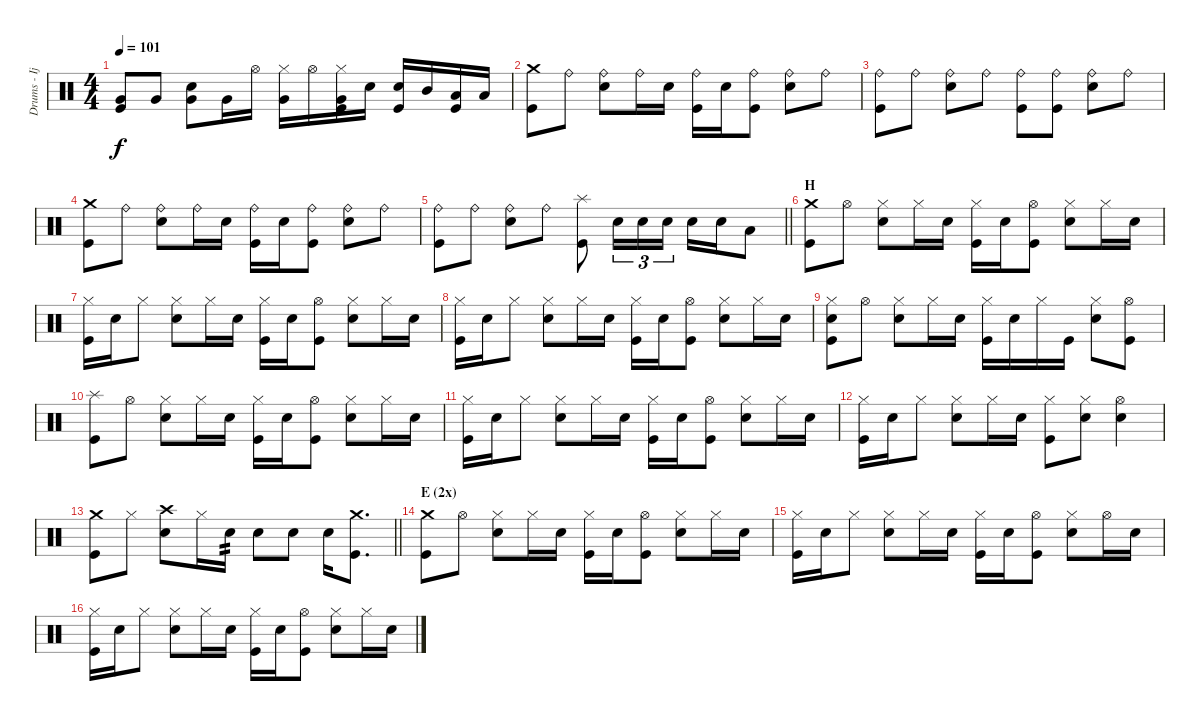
\track ("Drums - Ijichi" "Drums - Ij") {instrument percussion}
\staff {score}
\articulation defaults
\ts (4 4)
\tempo 101
\clef neutral
\ks c
("Very Low Tom (hit)" "Kick (hit)").8{dy f} "Very Low Tom (hit)".8 ("Electric Snare (hit)" "Very Low Tom (hit)").8 "Very Low Tom (hit)".16 "Hi-Hat (open)".16 ("Hi-Hat (closed)" "Very Low Tom (hit)").16 "Hi-Hat (open)".16 ("Hi-Hat (closed)" "Very Low Tom (hit)" "Kick (hit)").16 "Electric Snare (hit)".16 ("Electric Snare (hit)" "Kick (hit)").16 "Mid Tom (hit)".16 ("Low Tom (hit)" "Kick (hit)").16 "Low Tom (hit)".16 |
("Crash medium (hit)" "Kick (hit)").8 "Ride (bell)".8 ("Ride (bell)" "Electric Snare (hit)").8 "Ride (bell)".16 "Electric Snare (hit)".16 ("Ride (bell)" "Kick (hit)").16 "Electric Snare (hit)".16 ("Ride (bell)" "Kick (hit)").8 ("Ride (bell)" "Electric Snare (hit)").8 "Ride (bell)".8 |
("Ride (bell)" "Kick (hit)").8 "Ride (bell)".8 ("Ride (bell)" "Electric Snare (hit)").8 "Ride (bell)".8 ("Ride (bell)" "Kick (hit)").8 ("Ride (bell)" "Kick (hit)").8 ("Ride (bell)" "Electric Snare (hit)").8 "Ride (bell)".8 |
("Crash medium (hit)" "Kick (hit)").8 "Ride (bell)".8 ("Ride (bell)" "Electric Snare (hit)").8 "Ride (bell)".16 "Electric Snare (hit)".16 ("Ride (bell)" "Kick (hit)").16 "Electric Snare (hit)".16 ("Ride (bell)" "Kick (hit)").8 ("Ride (bell)" "Electric Snare (hit)").8 "Ride (bell)".8 |
\barLineRight lightlight
("Ride (bell)" "Kick (hit)").8 "Ride (bell)".8 ("Ride (bell)" "Electric Snare (hit)").8 "Ride (bell)".8 ("Splash (hit)" "Kick (hit)").8 "Electric Snare (hit)".16{tu (3 2)} "Electric Snare (hit)".16{tu (3 2)} "Electric Snare (hit)".16{tu (3 2)} "Electric Snare (hit)".16 "Electric Snare (hit)".16 "Low Tom (hit)".8 |
\section ("" "H")
("Crash medium (hit)" "Kick (hit)").8 "Hi-Hat (open)".8 ("Hi-Hat (closed)" "Electric Snare (hit)").8 "Hi-Hat (closed)".16 "Electric Snare (hit)".16 ("Hi-Hat (closed)" "Kick (hit)").16 "Electric Snare (hit)".16 ("Hi-Hat (open)" "Kick (hit)").8 ("Hi-Hat (closed)" "Electric Snare (hit)").8 "Hi-Hat (closed)".16 "Electric Snare (hit)".16 |
("Hi-Hat (closed)" "Kick (hit)").16 "Electric Snare (hit)".16 "Hi-Hat (closed)".8 ("Hi-Hat (closed)" "Electric Snare (hit)").8 "Hi-Hat (closed)".16 "Electric Snare (hit)".16 ("Hi-Hat (closed)" "Kick (hit)").16 "Electric Snare (hit)".16 ("Hi-Hat (open)" "Kick (hit)").8 ("Hi-Hat (closed)" "Electric Snare (hit)").8 "Hi-Hat (closed)".16 "Electric Snare (hit)".16 |
("Hi-Hat (closed)" "Kick (hit)").16 "Electric Snare (hit)".16 "Hi-Hat (closed)".8 ("Hi-Hat (closed)" "Electric Snare (hit)").8 "Hi-Hat (closed)".16 "Electric Snare (hit)".16 ("Hi-Hat (closed)" "Kick (hit)").16 "Electric Snare (hit)".16 ("Hi-Hat (open)" "Kick (hit)").8 ("Hi-Hat (closed)" "Electric Snare (hit)").8 "Hi-Hat (closed)".16 "Electric Snare (hit)".16 |
("Hi-Hat (closed)" "Electric Snare (hit)" "Kick (hit)").8 "Hi-Hat (open)".8 ("Hi-Hat (closed)" "Electric Snare (hit)").8 "Hi-Hat (closed)".16 "Electric Snare (hit)".16 ("Hi-Hat (closed)" "Kick (hit)").16 "Electric Snare (hit)".16 "Hi-Hat (closed)".16 "Kick (hit)".16 ("Hi-Hat (closed)" "Electric Snare (hit)").8 ("Hi-Hat (open)" "Kick (hit)").8 |
("Splash (hit)" "Kick (hit)").8 "Hi-Hat (open)".8 ("Hi-Hat (closed)" "Electric Snare (hit)").8 "Hi-Hat (closed)".16 "Electric Snare (hit)".16 ("Hi-Hat (closed)" "Kick (hit)").16 "Electric Snare (hit)".16 ("Hi-Hat (open)" "Kick (hit)").8 ("Hi-Hat (closed)" "Electric Snare (hit)").8 "Hi-Hat (closed)".16 "Electric Snare (hit)".16 |
("Hi-Hat (closed)" "Kick (hit)").16 "Electric Snare (hit)".16 "Hi-Hat (closed)".8 ("Hi-Hat (closed)" "Electric Snare (hit)").8 "Hi-Hat (closed)".16 "Electric Snare (hit)".16 ("Hi-Hat (closed)" "Kick (hit)").16 "Electric Snare (hit)".16 ("Hi-Hat (open)" "Kick (hit)").8 ("Hi-Hat (closed)" "Electric Snare (hit)").8 "Hi-Hat (closed)".16 "Electric Snare (hit)".16 |
("Hi-Hat (closed)" "Kick (hit)").16 "Electric Snare (hit)".16 "Hi-Hat (closed)".8 ("Hi-Hat (closed)" "Electric Snare (hit)").8 "Hi-Hat (closed)".16 "Electric Snare (hit)".16 ("Hi-Hat (closed)" "Kick (hit)").8 ("Hi-Hat (closed)" "Electric Snare (hit)").8 ("Hi-Hat (open)" "Electric Snare (hit)").4 |
\barLineRight lightlight
("Crash medium (hit)" "Kick (hit)").8 "Hi-Hat (closed)".8 ("Crash high (hit)" "Electric Snare (hit)").8 "Hi-Hat (closed)".16 "Electric Snare (hit)".16{tp 2} "Electric Snare (hit)".8 "Electric Snare (hit)".8 "Electric Snare (hit)".16 ("Crash medium (hit)" "Kick (hit)").8{d} |
\section ("" "E (2x)")
("Crash medium (hit)" "Kick (hit)").8 "Hi-Hat (open)".8 ("Hi-Hat (closed)" "Electric Snare (hit)").8 "Hi-Hat (closed)".16 "Electric Snare (hit)".16 ("Hi-Hat (closed)" "Kick (hit)").16 "Electric Snare (hit)".16 ("Hi-Hat (open)" "Kick (hit)").8 ("Hi-Hat (closed)" "Electric Snare (hit)").8 "Hi-Hat (closed)".16 "Electric Snare (hit)".16 |
("Hi-Hat (closed)" "Kick (hit)").16 "Electric Snare (hit)".16 "Hi-Hat (closed)".8 ("Hi-Hat (closed)" "Electric Snare (hit)").8 "Hi-Hat (closed)".16 "Electric Snare (hit)".16 ("Hi-Hat (closed)" "Kick (hit)").16 "Electric Snare (hit)".16 ("Hi-Hat (open)" "Kick (hit)").8 ("Hi-Hat (closed)" "Electric Snare (hit)").8 "Hi-Hat (open)".16 "Electric Snare (hit)".16 |
("Hi-Hat (closed)" "Kick (hit)").16 "Electric Snare (hit)".16 "Hi-Hat (closed)".8 ("Hi-Hat (closed)" "Electric Snare (hit)").8 "Hi-Hat (closed)".16 "Electric Snare (hit)".16 ("Hi-Hat (closed)" "Kick (hit)").16 "Electric Snare (hit)".16 ("Hi-Hat (open)" "Kick (hit)").8 ("Hi-Hat (closed)" "Electric Snare (hit)").8 "Hi-Hat (closed)".16 "Electric Snare (hit)".16
